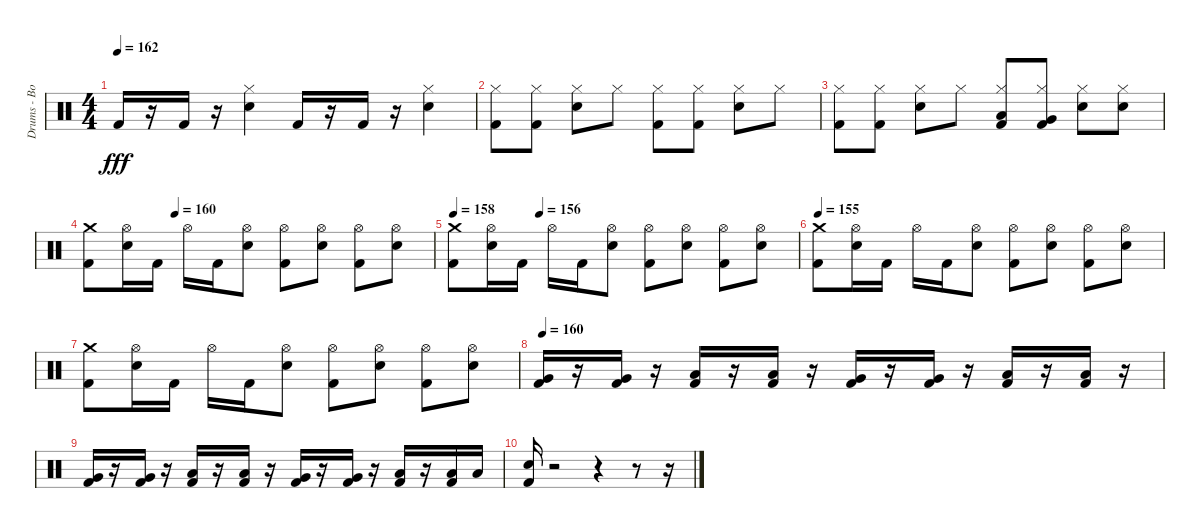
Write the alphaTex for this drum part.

\track ("Drums - Bobby Schayer" "Drums - Bo") {instrument percussion}
\staff {score}
\articulation defaults
\ts (4 4)
\tempo 162
\clef neutral
\ks c "Kick (hit) 2".16{dy fff}
r.16 "Kick (hit) 2".16 r.16 ("Electric Snare (hit)" "Hi-Hat (closed)").4 "Kick (hit) 2".16 r.16 "Kick (hit) 2".16 r.16 ("Electric Snare (hit)" "Hi-Hat (closed)").4 |
("Kick (hit) 2" "Hi-Hat (closed)").8 ("Kick (hit) 2" "Hi-Hat (closed)").8 ("Electric Snare (hit)" "Hi-Hat (closed)").8 "Hi-Hat (closed)".8 ("Kick (hit) 2" "Hi-Hat (closed)").8 ("Kick (hit) 2" "Hi-Hat (closed)").8 ("Electric Snare (hit)" "Hi-Hat (closed)").8 "Hi-Hat (closed)".8 |
("Kick (hit) 2" "Hi-Hat (closed)").8 ("Kick (hit) 2" "Hi-Hat (closed)").8 ("Electric Snare (hit)" "Hi-Hat (closed)").8 "Hi-Hat (closed)".8 ("Kick (hit) 2" "Hi-Hat (closed)" "Low Tom (hit)").8 ("Kick (hit) 2" "Hi-Hat (closed)" "Very Low Tom (hit)").8 ("Electric Snare (hit)" "Hi-Hat (closed)").8 ("Hi-Hat (closed)" "Electric Snare (hit)").8 |
\tempo (160 0.25)
("Kick (hit) 2" "Crash medium (hit)").8 ("Electric Snare (hit)" "Hi-Hat (open)").16 "Kick (hit) 2".16 "Hi-Hat (open)".16 "Kick (hit) 2".16 ("Electric Snare (hit)" "Hi-Hat (open)").8 ("Kick (hit) 2" "Hi-Hat (open)").8 ("Electric Snare (hit)" "Hi-Hat (open)").8 ("Kick (hit) 2" "Hi-Hat (open)").8 ("Electric Snare (hit)" "Hi-Hat (open)").8 |
\tempo 158
\tempo (156 0.25)
("Kick (hit) 2" "Crash medium (hit)").8 ("Electric Snare (hit)" "Hi-Hat (open)").16 "Kick (hit) 2".16 "Hi-Hat (open)".16 "Kick (hit) 2".16 ("Electric Snare (hit)" "Hi-Hat (open)").8 ("Kick (hit) 2" "Hi-Hat (open)").8 ("Electric Snare (hit)" "Hi-Hat (open)").8 ("Kick (hit) 2" "Hi-Hat (open)").8 ("Electric Snare (hit)" "Hi-Hat (open)").8 |
\tempo 155
("Kick (hit) 2" "Crash medium (hit)").8 ("Electric Snare (hit)" "Hi-Hat (open)").16 "Kick (hit) 2".16 "Hi-Hat (open)".16 "Kick (hit) 2".16 ("Electric Snare (hit)" "Hi-Hat (open)").8 ("Kick (hit) 2" "Hi-Hat (open)").8 ("Electric Snare (hit)" "Hi-Hat (open)").8 ("Kick (hit) 2" "Hi-Hat (open)").8 ("Electric Snare (hit)" "Hi-Hat (open)").8 |
("Kick (hit) 2" "Crash medium (hit)").8 ("Electric Snare (hit)" "Hi-Hat (open)").16 "Kick (hit) 2".16 "Hi-Hat (open)".16 "Kick (hit) 2".16 ("Electric Snare (hit)" "Hi-Hat (open)").8 ("Kick (hit) 2" "Hi-Hat (open)").8 ("Electric Snare (hit)" "Hi-Hat (open)").8 ("Kick (hit) 2" "Hi-Hat (open)").8 ("Electric Snare (hit)" "Hi-Hat (open)").8 |
\tempo 160
("Kick (hit) 2" "Very Low Tom (hit)").16 r.16 ("Kick (hit) 2" "Very Low Tom (hit)").16 r.16 ("Kick (hit) 2" "Low Tom (hit)").16 r.16 ("Kick (hit) 2" "Low Tom (hit)").16 r.16 ("Kick (hit) 2" "Very Low Tom (hit)").16 r.16 ("Kick (hit) 2" "Very Low Tom (hit)").16 r.16 ("Kick (hit) 2" "Low Tom (hit)").16 r.16 ("Kick (hit) 2" "Low Tom (hit)").16 r.16 |
("Kick (hit) 2" "Very Low Tom (hit)").16 r.16 ("Kick (hit) 2" "Very Low Tom (hit)").16 r.16 ("Kick (hit) 2" "Low Tom (hit)").16 r.16 ("Kick (hit) 2" "Low Tom (hit)").16 r.16 ("Kick (hit) 2" "Very Low Tom (hit)").16 r.16 ("Kick (hit) 2" "Very Low Tom (hit)").16 r.16 ("Kick (hit) 2" "Low Tom (hit)").16 r.16 ("Kick (hit) 2" "Low Tom (hit)").16 "Low Tom (hit)".16 |
("Kick (hit) 2" "Electric Snare (hit)").16 r.2 r.4 r.8 r.16
